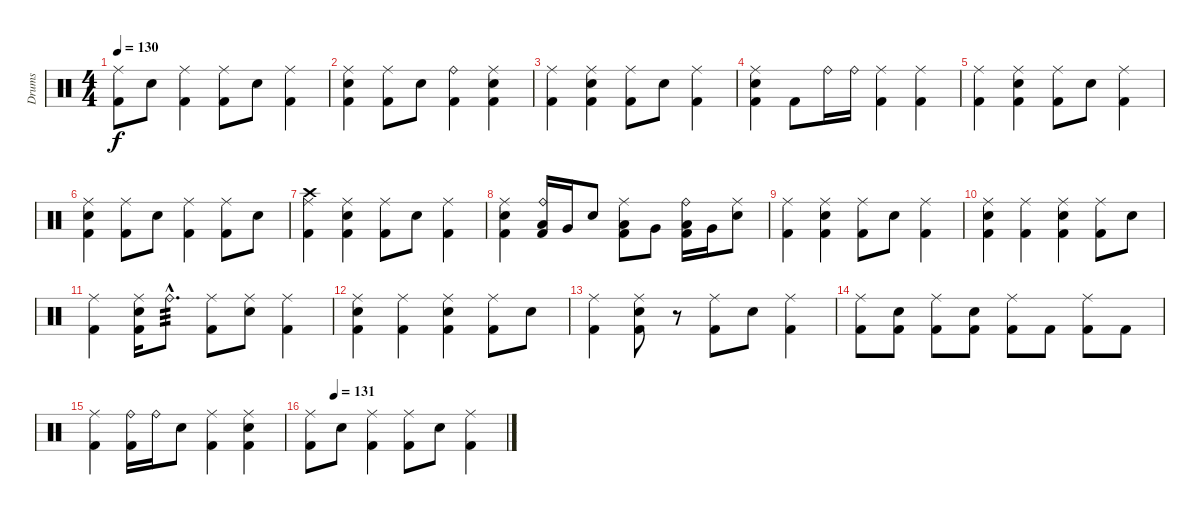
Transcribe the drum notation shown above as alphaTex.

\track ("Drums" "Drums") {instrument percussion}
\staff {score}
\articulation defaults
\ts (4 4)
\tempo 130
\clef neutral
\ks c
("Ride (middle)" "Kick (hit) 2").8{dy f} "Electric Snare (hit)".8 ("Ride (middle)" "Kick (hit) 2").4 ("Ride (middle)" "Kick (hit) 2").8 "Electric Snare (hit)".8 ("Ride (middle)" "Kick (hit) 2").4 |
("Electric Snare (hit)" "Ride (middle)" "Kick (hit) 2").4 ("Ride (middle)" "Kick (hit) 2").8 "Electric Snare (hit)".8 ("Ride (bell)" "Kick (hit) 2").4 ("Electric Snare (hit)" "Ride (middle)" "Kick (hit) 2").4 |
("Ride (middle)" "Kick (hit) 2").4 ("Electric Snare (hit)" "Ride (middle)" "Kick (hit) 2").4 ("Ride (middle)" "Kick (hit) 2").8 "Electric Snare (hit)".8 ("Ride (middle)" "Kick (hit) 2").4 |
("Electric Snare (hit)" "Ride (middle)" "Kick (hit) 2").4 "Kick (hit) 2".8 "Ride (bell)".16 "Ride (bell)".16 ("Ride (middle)" "Kick (hit) 2").4 ("Ride (middle)" "Kick (hit) 2").4 |
("Ride (middle)" "Kick (hit) 2").4 ("Electric Snare (hit)" "Ride (middle)" "Kick (hit) 2").4 ("Ride (middle)" "Kick (hit) 2").8 "Electric Snare (hit)".8 ("Ride (middle)" "Kick (hit) 2").4 |
("Electric Snare (hit)" "Ride (middle)" "Kick (hit) 2").4 ("Ride (middle)" "Kick (hit) 2").8 "Electric Snare (hit)".8 ("Ride (middle)" "Kick (hit) 2").4 ("Ride (middle)" "Kick (hit) 2").8 "Electric Snare (hit)".8 |
("Crash high (hit)" "Ride (middle)" "Kick (hit) 2").4 ("Electric Snare (hit)" "Ride (middle)" "Kick (hit) 2").4 ("Ride (middle)" "Kick (hit) 2").8 "Electric Snare (hit)".8 ("Ride (middle)" "Kick (hit) 2").4 |
("Electric Snare (hit)" "Ride (middle)" "Kick (hit) 2").4 ("Low Floor Tom (hit)" "Ride (bell)" "Kick (hit) 2").16 "Very Low Tom (hit)".16 "Electric Snare (hit)".8 ("Low Floor Tom (hit)" "Ride (middle)" "Kick (hit) 2").8 "Very Low Tom (hit)".8 ("Low Floor Tom (hit)" "Ride (bell)" "Kick (hit) 2").16 "Very Low Tom (hit)".16 ("Ride (middle)" "Electric Snare (hit)").8 |
("Ride (middle)" "Kick (hit) 2").4 ("Electric Snare (hit)" "Ride (middle)" "Kick (hit) 2").4 ("Ride (middle)" "Kick (hit) 2").8 "Electric Snare (hit)".8 ("Ride (middle)" "Kick (hit) 2").4 |
("Electric Snare (hit)" "Ride (middle)" "Kick (hit) 2").4 ("Ride (middle)" "Kick (hit) 2").4 ("Electric Snare (hit)" "Ride (middle)" "Kick (hit) 2").4 ("Ride (middle)" "Kick (hit) 2").8 "Electric Snare (hit)".8 |
("Ride (middle)" "Kick (hit) 2").4 ("Electric Snare (hit)" "Ride (middle)" "Kick (hit) 2").16 "Ride (bell)"{hac}.8{d tp 3} ("Ride (middle)" "Kick (hit) 2").8 ("Electric Snare (hit)" "Ride (middle)").8 ("Ride (middle)" "Kick (hit) 2").4 |
("Electric Snare (hit)" "Ride (middle)" "Kick (hit) 2").4 ("Ride (middle)" "Kick (hit) 2").4 ("Electric Snare (hit)" "Ride (middle)" "Kick (hit) 2").4 ("Ride (middle)" "Kick (hit) 2").8 "Electric Snare (hit)".8 |
("Ride (middle)" "Kick (hit) 2").4 ("Electric Snare (hit)" "Ride (middle)" "Kick (hit) 2").8 r.8 ("Ride (middle)" "Kick (hit) 2").8 "Electric Snare (hit)".8 ("Ride (middle)" "Kick (hit) 2").4 |
("Ride (middle)" "Kick (hit) 2").8 ("Electric Snare (hit)" "Kick (hit) 2").8 ("Ride (middle)" "Kick (hit) 2").8 ("Electric Snare (hit)" "Kick (hit) 2").8 ("Ride (middle)" "Kick (hit) 2").8 "Kick (hit) 2".8 ("Ride (middle)" "Kick (hit) 2").8 "Kick (hit) 2".8 |
("Ride (middle)" "Kick (hit) 2").4 ("Ride (bell)" "Kick (hit) 2").16 "Ride (bell)".16 "Electric Snare (hit)".8 ("Ride (middle)" "Kick (hit) 2").4 ("Electric Snare (hit)" "Ride (middle)" "Kick (hit) 2").4 |
\tempo (131 0.125)
("Ride (middle)" "Kick (hit) 2").8 "Electric Snare (hit)".8 ("Ride (middle)" "Kick (hit) 2").4 ("Ride (middle)" "Kick (hit) 2").8 "Electric Snare (hit)".8 ("Ride (middle)" "Kick (hit) 2").4
